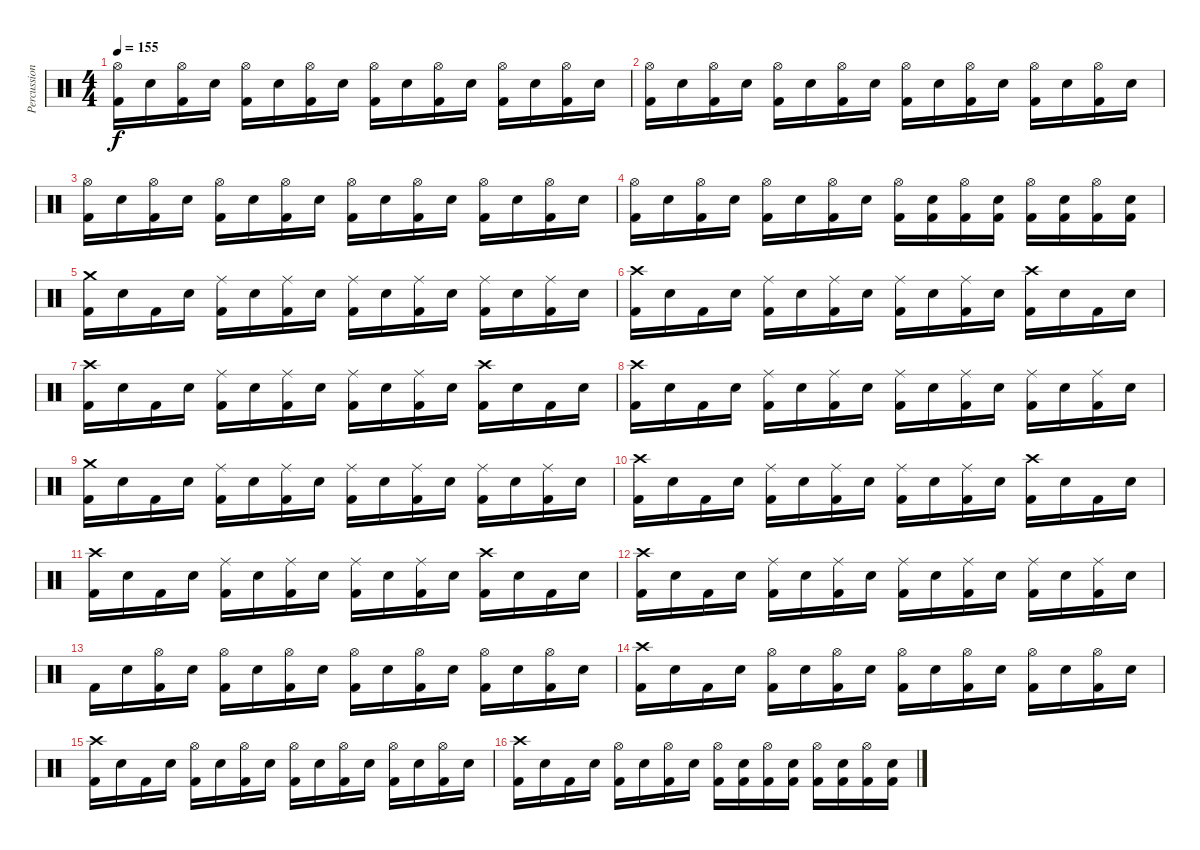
\track ("Percussion" "Percussion") {instrument percussion}
\staff {score}
\articulation defaults
\ts (4 4)
\tempo 155
\clef neutral
\ks c
("Kick (hit) 2" "Hi-Hat (open)").16{dy f} "Snare (hit) 2".16 ("Kick (hit) 2" "Hi-Hat (open)").16 "Snare (hit) 2".16 ("Kick (hit) 2" "Hi-Hat (open)").16 "Snare (hit) 2".16 ("Kick (hit) 2" "Hi-Hat (open)").16 "Snare (hit) 2".16 ("Kick (hit) 2" "Hi-Hat (open)").16 "Snare (hit) 2".16 ("Kick (hit) 2" "Hi-Hat (open)").16 "Snare (hit) 2".16 ("Kick (hit) 2" "Hi-Hat (open)").16 "Snare (hit) 2".16 ("Kick (hit) 2" "Hi-Hat (open)").16 "Snare (hit) 2".16 |
("Kick (hit) 2" "Hi-Hat (open)").16 "Snare (hit) 2".16 ("Kick (hit) 2" "Hi-Hat (open)").16 "Snare (hit) 2".16 ("Kick (hit) 2" "Hi-Hat (open)").16 "Snare (hit) 2".16 ("Kick (hit) 2" "Hi-Hat (open)").16 "Snare (hit) 2".16 ("Kick (hit) 2" "Hi-Hat (open)").16 "Snare (hit) 2".16 ("Kick (hit) 2" "Hi-Hat (open)").16 "Snare (hit) 2".16 ("Kick (hit) 2" "Hi-Hat (open)").16 "Snare (hit) 2".16 ("Kick (hit) 2" "Hi-Hat (open)").16 "Snare (hit) 2".16 |
("Kick (hit) 2" "Hi-Hat (open)").16 "Snare (hit) 2".16 ("Kick (hit) 2" "Hi-Hat (open)").16 "Snare (hit) 2".16 ("Kick (hit) 2" "Hi-Hat (open)").16 "Snare (hit) 2".16 ("Kick (hit) 2" "Hi-Hat (open)").16 "Snare (hit) 2".16 ("Kick (hit) 2" "Hi-Hat (open)").16 "Snare (hit) 2".16 ("Kick (hit) 2" "Hi-Hat (open)").16 "Snare (hit) 2".16 ("Kick (hit) 2" "Hi-Hat (open)").16 "Snare (hit) 2".16 ("Kick (hit) 2" "Hi-Hat (open)").16 "Snare (hit) 2".16 |
("Kick (hit) 2" "Hi-Hat (open)").16 "Snare (hit) 2".16 ("Kick (hit) 2" "Hi-Hat (open)").16 "Snare (hit) 2".16 ("Kick (hit) 2" "Hi-Hat (open)").16 "Snare (hit) 2".16 ("Kick (hit) 2" "Hi-Hat (open)").16 "Snare (hit) 2".16 ("Kick (hit) 2" "Hi-Hat (open)").16 ("Snare (hit) 2" "Kick (hit) 2").16 ("Kick (hit) 2" "Hi-Hat (open)").16 ("Snare (hit) 2" "Kick (hit) 2").16 ("Kick (hit) 2" "Hi-Hat (open)").16 ("Snare (hit) 2" "Kick (hit) 2").16 ("Kick (hit) 2" "Hi-Hat (open)").16 ("Snare (hit) 2" "Kick (hit) 2").16 |
("Kick (hit) 2" "Crash medium (hit)").16 "Snare (hit) 2".16 "Kick (hit) 2".16 "Snare (hit) 2".16 ("Kick (hit) 2" "Ride (middle)").16 "Snare (hit) 2".16 ("Kick (hit) 2" "Ride (middle)").16 "Snare (hit) 2".16 ("Kick (hit) 2" "Ride (middle)").16 "Snare (hit) 2".16 ("Kick (hit) 2" "Ride (middle)").16 "Snare (hit) 2".16 ("Kick (hit) 2" "Ride (middle)").16 "Snare (hit) 2".16 ("Kick (hit) 2" "Ride (middle)").16 "Snare (hit) 2".16 |
("Kick (hit) 2" "Crash high (hit)").16 "Snare (hit) 2".16 "Kick (hit) 2".16 "Snare (hit) 2".16 ("Kick (hit) 2" "Ride (middle)").16 "Snare (hit) 2".16 ("Kick (hit) 2" "Ride (middle)").16 "Snare (hit) 2".16 ("Kick (hit) 2" "Ride (middle)").16 "Snare (hit) 2".16 ("Kick (hit) 2" "Ride (middle)").16 "Snare (hit) 2".16 ("Kick (hit) 2" "Crash high (hit)").16 "Snare (hit) 2".16 "Kick (hit) 2".16 "Snare (hit) 2".16 |
("Kick (hit) 2" "Crash high (hit)").16 "Snare (hit) 2".16 "Kick (hit) 2".16 "Snare (hit) 2".16 ("Kick (hit) 2" "Ride (middle)").16 "Snare (hit) 2".16 ("Kick (hit) 2" "Ride (middle)").16 "Snare (hit) 2".16 ("Kick (hit) 2" "Ride (middle)").16 "Snare (hit) 2".16 ("Kick (hit) 2" "Ride (middle)").16 "Snare (hit) 2".16 ("Kick (hit) 2" "Crash high (hit)").16 "Snare (hit) 2".16 "Kick (hit) 2".16 "Snare (hit) 2".16 |
("Kick (hit) 2" "Crash high (hit)").16 "Snare (hit) 2".16 "Kick (hit) 2".16 "Snare (hit) 2".16 ("Kick (hit) 2" "Ride (middle)").16 "Snare (hit) 2".16 ("Kick (hit) 2" "Ride (middle)").16 "Snare (hit) 2".16 ("Kick (hit) 2" "Ride (middle)").16 "Snare (hit) 2".16 ("Kick (hit) 2" "Ride (middle)").16 "Snare (hit) 2".16 ("Kick (hit) 2" "Ride (middle)").16 "Snare (hit) 2".16 ("Kick (hit) 2" "Ride (middle)").16 "Snare (hit) 2".16 |
("Kick (hit) 2" "Crash medium (hit)").16 "Snare (hit) 2".16 "Kick (hit) 2".16 "Snare (hit) 2".16 ("Kick (hit) 2" "Ride (middle)").16 "Snare (hit) 2".16 ("Kick (hit) 2" "Ride (middle)").16 "Snare (hit) 2".16 ("Kick (hit) 2" "Ride (middle)").16 "Snare (hit) 2".16 ("Kick (hit) 2" "Ride (middle)").16 "Snare (hit) 2".16 ("Kick (hit) 2" "Ride (middle)").16 "Snare (hit) 2".16 ("Kick (hit) 2" "Ride (middle)").16 "Snare (hit) 2".16 |
("Kick (hit) 2" "Crash high (hit)").16 "Snare (hit) 2".16 "Kick (hit) 2".16 "Snare (hit) 2".16 ("Kick (hit) 2" "Ride (middle)").16 "Snare (hit) 2".16 ("Kick (hit) 2" "Ride (middle)").16 "Snare (hit) 2".16 ("Kick (hit) 2" "Ride (middle)").16 "Snare (hit) 2".16 ("Kick (hit) 2" "Ride (middle)").16 "Snare (hit) 2".16 ("Kick (hit) 2" "Crash high (hit)").16 "Snare (hit) 2".16 "Kick (hit) 2".16 "Snare (hit) 2".16 |
("Kick (hit) 2" "Crash high (hit)").16 "Snare (hit) 2".16 "Kick (hit) 2".16 "Snare (hit) 2".16 ("Kick (hit) 2" "Ride (middle)").16 "Snare (hit) 2".16 ("Kick (hit) 2" "Ride (middle)").16 "Snare (hit) 2".16 ("Kick (hit) 2" "Ride (middle)").16 "Snare (hit) 2".16 ("Kick (hit) 2" "Ride (middle)").16 "Snare (hit) 2".16 ("Kick (hit) 2" "Crash high (hit)").16 "Snare (hit) 2".16 "Kick (hit) 2".16 "Snare (hit) 2".16 |
("Kick (hit) 2" "Crash high (hit)").16 "Snare (hit) 2".16 "Kick (hit) 2".16 "Snare (hit) 2".16 ("Kick (hit) 2" "Ride (middle)").16 "Snare (hit) 2".16 ("Kick (hit) 2" "Ride (middle)").16 "Snare (hit) 2".16 ("Kick (hit) 2" "Ride (middle)").16 "Snare (hit) 2".16 ("Kick (hit) 2" "Ride (middle)").16 "Snare (hit) 2".16 ("Kick (hit) 2" "Ride (middle)").16 "Snare (hit) 2".16 ("Kick (hit) 2" "Ride (middle)").16 "Snare (hit) 2".16 |
"Kick (hit) 2".16 "Snare (hit) 2".16 ("Kick (hit) 2" "Hi-Hat (open)").16 "Snare (hit) 2".16 ("Kick (hit) 2" "Hi-Hat (open)").16 "Snare (hit) 2".16 ("Kick (hit) 2" "Hi-Hat (open)").16 "Snare (hit) 2".16 ("Kick (hit) 2" "Hi-Hat (open)").16 "Snare (hit) 2".16 ("Kick (hit) 2" "Hi-Hat (open)").16 "Snare (hit) 2".16 ("Kick (hit) 2" "Hi-Hat (open)").16 "Snare (hit) 2".16 ("Kick (hit) 2" "Hi-Hat (open)").16 "Snare (hit) 2".16 |
("Kick (hit) 2" "Crash high (hit)").16 "Snare (hit) 2".16 "Kick (hit) 2".16 "Snare (hit) 2".16 ("Kick (hit) 2" "Hi-Hat (open)").16 "Snare (hit) 2".16 ("Kick (hit) 2" "Hi-Hat (open)").16 "Snare (hit) 2".16 ("Kick (hit) 2" "Hi-Hat (open)").16 "Snare (hit) 2".16 ("Kick (hit) 2" "Hi-Hat (open)").16 "Snare (hit) 2".16 ("Kick (hit) 2" "Hi-Hat (open)").16 "Snare (hit) 2".16 ("Kick (hit) 2" "Hi-Hat (open)").16 "Snare (hit) 2".16 |
("Kick (hit) 2" "Crash high (hit)").16 "Snare (hit) 2".16 "Kick (hit) 2".16 "Snare (hit) 2".16 ("Kick (hit) 2" "Hi-Hat (open)").16 "Snare (hit) 2".16 ("Kick (hit) 2" "Hi-Hat (open)").16 "Snare (hit) 2".16 ("Kick (hit) 2" "Hi-Hat (open)").16 "Snare (hit) 2".16 ("Kick (hit) 2" "Hi-Hat (open)").16 "Snare (hit) 2".16 ("Kick (hit) 2" "Hi-Hat (open)").16 "Snare (hit) 2".16 ("Kick (hit) 2" "Hi-Hat (open)").16 "Snare (hit) 2".16 |
("Kick (hit) 2" "Crash high (hit)").16 "Snare (hit) 2".16 "Kick (hit) 2".16 "Snare (hit) 2".16 ("Kick (hit) 2" "Hi-Hat (open)").16 "Snare (hit) 2".16 ("Kick (hit) 2" "Hi-Hat (open)").16 "Snare (hit) 2".16 ("Kick (hit) 2" "Hi-Hat (open)").16 ("Kick (hit) 2" "Snare (hit) 2").16 ("Kick (hit) 2" "Hi-Hat (open)").16 ("Kick (hit) 2" "Snare (hit) 2").16 ("Kick (hit) 2" "Hi-Hat (open)").16 ("Kick (hit) 2" "Snare (hit) 2").16 ("Kick (hit) 2" "Hi-Hat (open)").16 ("Kick (hit) 2" "Snare (hit) 2").16
